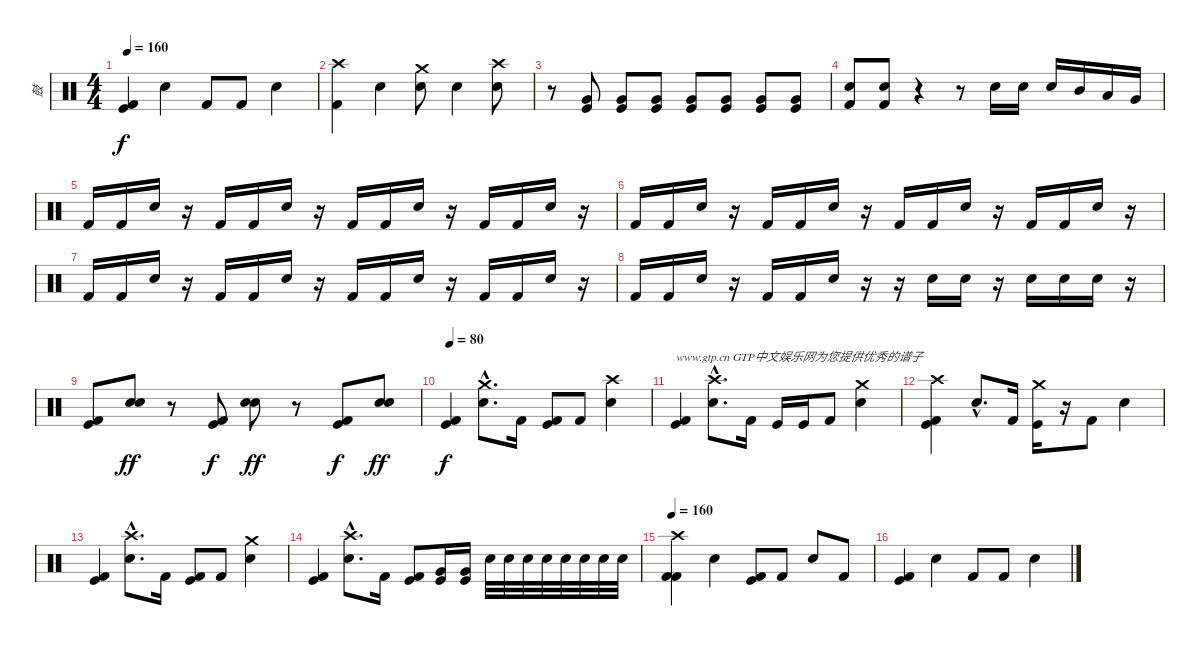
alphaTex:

\track ("鼓" "鼓") {instrument percussion}
\staff {score}
\articulation defaults
\ts (4 4)
\tempo 160
\clef neutral
\ks c
("Kick (hit) 2" "Kick (hit)").4{dy f} "Snare (hit) 2".4 "Kick (hit) 2".8 "Kick (hit) 2".8 "Snare (hit) 2".4 |
("Crash high (hit)" "Kick (hit) 2").4 "Snare (hit) 2".4 ("Crash medium (hit)" "Snare (hit) 2").8 "Snare (hit) 2".4 ("Crash high (hit)" "Snare (hit) 2").8 |
r.8 ("Very Low Tom (hit)" "Kick (hit)").8 ("Very Low Tom (hit)" "Kick (hit)").8 ("Very Low Tom (hit)" "Kick (hit)").8 ("Very Low Tom (hit)" "Kick (hit)").8 ("Very Low Tom (hit)" "Kick (hit)").8 ("Very Low Tom (hit)" "Kick (hit)").8 ("Very Low Tom (hit)" "Kick (hit)").8 |
("Snare (hit) 2" "Kick (hit) 2").8 ("Snare (hit) 2" "Kick (hit) 2").8 r.4 r.8 "Snare (hit) 2".16 "Snare (hit) 2".16 "Snare (hit) 2".16 "Mid Tom (hit)".16 "Low Tom (hit)".16 "Very Low Tom (hit)".16 |
"Kick (hit) 2".16 "Kick (hit) 2".16 "Snare (hit) 2".16 r.16 "Kick (hit) 2".16 "Kick (hit) 2".16 "Snare (hit) 2".16 r.16 "Kick (hit) 2".16 "Kick (hit) 2".16 "Snare (hit) 2".16 r.16 "Kick (hit) 2".16 "Kick (hit) 2".16 "Snare (hit) 2".16 r.16 |
"Kick (hit) 2".16 "Kick (hit) 2".16 "Snare (hit) 2".16 r.16 "Kick (hit) 2".16 "Kick (hit) 2".16 "Snare (hit) 2".16 r.16 "Kick (hit) 2".16 "Kick (hit) 2".16 "Snare (hit) 2".16 r.16 "Kick (hit) 2".16 "Kick (hit) 2".16 "Snare (hit) 2".16 r.16 |
"Kick (hit) 2".16 "Kick (hit) 2".16 "Snare (hit) 2".16 r.16 "Kick (hit) 2".16 "Kick (hit) 2".16 "Snare (hit) 2".16 r.16 "Kick (hit) 2".16 "Kick (hit) 2".16 "Snare (hit) 2".16 r.16 "Kick (hit) 2".16 "Kick (hit) 2".16 "Snare (hit) 2".16 r.16 |
"Kick (hit) 2".16 "Kick (hit) 2".16 "Snare (hit) 2".16 r.16 "Kick (hit) 2".16 "Kick (hit) 2".16 "Snare (hit) 2".16 r.16 r.16 "Snare (hit) 2".16 "Snare (hit) 2".16 r.16 "Snare (hit) 2".16 "Snare (hit) 2".16 "Snare (hit) 2".16 r.16 |
("Kick (hit) 2" "Kick (hit)").8 ("Electric Snare (hit)" "Snare (hit) 2").8{dy ff} r.8 ("Kick (hit)" "Kick (hit) 2").8{dy f} ("Electric Snare (hit)" "Snare (hit) 2").8{dy ff} r.8 ("Kick (hit)" "Kick (hit) 2").8{dy f} ("Electric Snare (hit)" "Snare (hit) 2").8{dy ff} |
\tempo 80
("Kick (hit)" "Kick (hit) 2").4{dy f} ("Crash medium (hit)"{hac} "Snare (hit) 2"{hac}).8{d} "Kick (hit) 2".16 ("Kick (hit) 2" "Kick (hit)").8 "Kick (hit) 2".8 ("Crash high (hit)" "Snare (hit) 2").4 |
("Kick (hit) 2" "Kick (hit)").4{txt "www.gtp.cn GTP中文娱乐网为您提供优秀的谱子"} ("Crash high (hit)"{hac} "Snare (hit) 2"{hac}).8{d} "Kick (hit) 2".16 "Kick (hit)".16 "Kick (hit)".16 "Kick (hit) 2".8 ("Crash medium (hit)" "Snare (hit) 2").4 |
("Crash high (hit)" "Kick (hit) 2" "Kick (hit)").4 "Snare (hit) 2"{hac}.8{d} "Kick (hit) 2".16 ("Crash medium (hit)" "Kick (hit)").16 r.16 "Kick (hit) 2".8 "Snare (hit) 2".4 |
("Kick (hit)" "Kick (hit) 2").4 ("Crash high (hit)"{hac} "Snare (hit) 2"{hac}).8{d} "Kick (hit) 2".16 ("Kick (hit) 2" "Kick (hit)").8 "Kick (hit) 2".8 ("Crash medium (hit)" "Snare (hit) 2").4 |
("Kick (hit)" "Kick (hit) 2").4 ("Crash high (hit)"{hac} "Snare (hit) 2"{hac}).8{d} "Kick (hit) 2".16 ("Kick (hit) 2" "Kick (hit)").8 ("Kick (hit)" "Very Low Tom (hit)").16 ("Kick (hit)" "Very Low Tom (hit)").16 "Snare (hit) 2".32 "Snare (hit) 2".32 "Snare (hit) 2".32 "Snare (hit) 2".32 "Snare (hit) 2".32 "Snare (hit) 2".32 "Snare (hit) 2".32 "Snare (hit) 2".32 |
\tempo 160
("Crash high (hit)" "Kick (hit) 2" "Kick (hit) 2").4 "Snare (hit) 2".4 ("Kick (hit) 2" "Kick (hit)").8 "Kick (hit) 2".8 "Snare (hit) 2".8 "Kick (hit) 2".8 |
("Kick (hit)" "Kick (hit) 2").4 "Snare (hit) 2".4 "Kick (hit) 2".8 "Kick (hit) 2".8 "Snare (hit) 2".4
